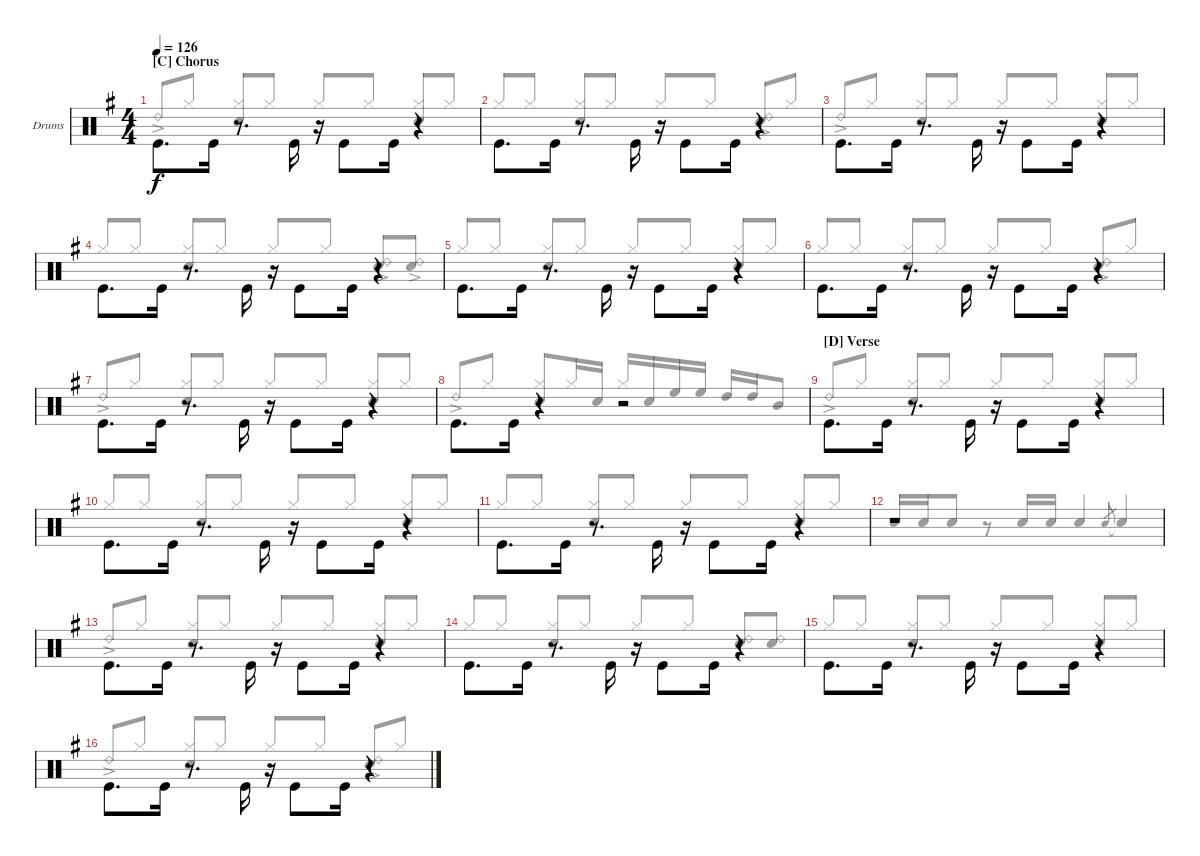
\defaultSystemsLayout 4
\bracketExtendMode groupsimilarinstruments
\firstSystemTrackNameOrientation horizontal
\otherSystemsTrackNameOrientation horizontal
\track ("Drumkit" "Drums") {instrument percussion}
\staff {score}
\articulation defaults
\voice
\ts (4 4)
\section ("C" "Chorus")
\tempo 126
\clef neutral
\scale
1.04288
\ks g "Kick (hit)".8{d dy f beam invert} "Kick (hit)".16
r.8{d beam invert} "Kick (hit)".16{beam invert} r.16{beam invert} "Kick (hit)".8{beam invert} "Kick (hit)".16 r.4{beam invert} |
\scale
0.957125 "Kick (hit)".8{d beam invert} "Kick (hit)".16 r.8{d beam invert} "Kick (hit)".16{beam invert} r.16{beam invert} "Kick (hit)".8{beam invert} "Kick (hit)".16 r.4{beam invert} |
\scale
1.04288 "Kick (hit)".8{d beam invert} "Kick (hit)".16 r.8{d beam invert} "Kick (hit)".16{beam invert} r.16{beam invert} "Kick (hit)".8{beam invert} "Kick (hit)".16 r.4{beam invert} |
\scale
0.957125 "Kick (hit)".8{d beam invert} "Kick (hit)".16 r.8{d beam invert} "Kick (hit)".16{beam invert} r.16{beam invert} "Kick (hit)".8{beam invert} "Kick (hit)".16 r.4{beam invert} |
\scale
1.04288 "Kick (hit)".8{d beam invert} "Kick (hit)".16 r.8{d beam invert} "Kick (hit)".16{beam invert} r.16{beam invert} "Kick (hit)".8{beam invert} "Kick (hit)".16 r.4{beam invert} |
\scale
0.957125 "Kick (hit)".8{d beam invert} "Kick (hit)".16 r.8{d beam invert} "Kick (hit)".16{beam invert} r.16{beam invert} "Kick (hit)".8{beam invert} "Kick (hit)".16 r.4{beam invert} |
\scale
1.04288 "Kick (hit)".8{d beam invert} "Kick (hit)".16 r.8{d beam invert} "Kick (hit)".16{beam invert} r.16{beam invert} "Kick (hit)".8{beam invert} "Kick (hit)".16 r.4{beam invert} |
\scale
0.957125 "Kick (hit)".8{d beam invert} "Kick (hit)".16 r.4{beam invert} r.2 |
\section ("D" "Verse")
\scale
1.04288 "Kick (hit)".8{d beam invert} "Kick (hit)".16 r.8{d beam invert} "Kick (hit)".16{beam invert} r.16{beam invert} "Kick (hit)".8{beam invert} "Kick (hit)".16 r.4{beam invert} |
\scale
0.957125 "Kick (hit)".8{d beam invert} "Kick (hit)".16 r.8{d beam invert} "Kick (hit)".16{beam invert} r.16{beam invert} "Kick (hit)".8{beam invert} "Kick (hit)".16 r.4{beam invert} |
\scale
1.04288 "Kick (hit)".8{d beam invert} "Kick (hit)".16 r.8{d beam invert} "Kick (hit)".16{beam invert} r.16{beam invert} "Kick (hit)".8{beam invert} "Kick (hit)".16 r.4{beam invert} |
\scale
0.957125 r.1 |
\scale
1.04288 "Kick (hit)".8{d beam invert} "Kick (hit)".16 r.8{d beam invert} "Kick (hit)".16{beam invert} r.16{beam invert} "Kick (hit)".8{beam invert} "Kick (hit)".16 r.4{beam invert} |
\scale
0.957125 "Kick (hit)".8{d beam invert} "Kick (hit)".16 r.8{d beam invert} "Kick (hit)".16{beam invert} r.16{beam invert} "Kick (hit)".8{beam invert} "Kick (hit)".16 r.4{beam invert} |
\scale
1.04288 "Kick (hit)".8{d beam invert} "Kick (hit)".16 r.8{d beam invert} "Kick (hit)".16{beam invert} r.16{beam invert} "Kick (hit)".8{beam invert} "Kick (hit)".16 r.4{beam invert} |
\scale
0.957125 "Kick (hit)".8{d beam invert} "Kick (hit)".16 r.8{d beam invert} "Kick (hit)".16{beam invert} r.16{beam invert} "Kick (hit)".8{beam invert} "Kick (hit)".16 r.4{beam invert}
\voice
\clef neutral
\ottava regular
\simile none
\scale
1.04288
\ks g "Ride (bell) 2"{ac}.8{dy f beam invert} "Hi-Hat (closed)".8
("Hi-Hat (closed)" "Snare (hit) 2").8{beam invert} "Hi-Hat (closed)".8 "Hi-Hat (closed)".8{beam invert} "Hi-Hat (closed)".8 ("Hi-Hat (closed)" "Snare (hit) 2").8{beam invert} "Hi-Hat (closed)".8 |
\scale
0.957125 "Hi-Hat (closed)".8{beam invert} "Hi-Hat (closed)".8 ("Hi-Hat (closed)" "Snare (hit) 2").8{beam invert} "Hi-Hat (closed)".8 "Hi-Hat (closed)".8{beam invert} "Hi-Hat (closed)".8 ("Snare (hit) 2" "Ride (bell) 2"{ac}).8{beam invert} "Hi-Hat (closed)".8 |
\scale
1.04288 "Ride (bell) 2"{ac}.8{beam invert} "Hi-Hat (closed)".8 ("Hi-Hat (closed)" "Snare (hit) 2").8{beam invert} "Hi-Hat (closed)".8 "Hi-Hat (closed)".8{beam invert} "Hi-Hat (closed)".8 ("Hi-Hat (closed)" "Snare (hit) 2").8{beam invert} "Hi-Hat (closed)".8 |
\scale
0.957125 "Hi-Hat (closed)".8{beam invert} "Hi-Hat (closed)".8 ("Hi-Hat (closed)" "Snare (hit) 2").8{beam invert} "Hi-Hat (closed)".8 "Hi-Hat (closed)".8{beam invert} "Hi-Hat (closed)".8 ("Snare (hit) 2" "Ride (bell) 2"{ac}).8{beam invert} ("Snare (hit) 2" "Ride (bell) 2"{ac}).8 |
\scale
1.04288 "Hi-Hat (closed)".8{beam invert} "Hi-Hat (closed)".8 ("Hi-Hat (closed)" "Snare (hit) 2").8{beam invert} "Hi-Hat (closed)".8 "Hi-Hat (closed)".8{beam invert} "Hi-Hat (closed)".8 ("Hi-Hat (closed)" "Snare (hit) 2").8{beam invert} "Hi-Hat (closed)".8 |
\scale
0.957125 "Hi-Hat (closed)".8{beam invert} "Hi-Hat (closed)".8 ("Hi-Hat (closed)" "Snare (hit) 2").8{beam invert} "Hi-Hat (closed)".8 "Hi-Hat (closed)".8{beam invert} "Hi-Hat (closed)".8 ("Snare (hit) 2" "Ride (bell) 2"{ac}).8{beam invert} "Hi-Hat (closed)".8 |
\scale
1.04288 "Ride (bell) 2"{ac}.8{beam invert} "Hi-Hat (closed)".8 ("Hi-Hat (closed)" "Snare (hit) 2").8{beam invert} "Hi-Hat (closed)".8 "Hi-Hat (closed)".8{beam invert} "Hi-Hat (closed)".8 ("Hi-Hat (closed)" "Snare (hit) 2").8{beam invert} "Hi-Hat (closed)".8 |
\scale
0.957125 "Ride (bell) 2"{ac}.8{beam invert} "Hi-Hat (closed)".8 ("Hi-Hat (closed)" "Snare (hit) 2").8{beam invert} "Hi-Hat (closed)".16 "Snare (hit) 2".16 "Hi-Hat (closed)".16 "Snare (hit) 2".16{beam invert} "High Floor Tom (hit)".16 "High Floor Tom (hit)".16 "High Tom (hit)".16{beam invert} "High Tom (hit)".16 "Mid Tom (hit)".8 |
\scale
1.04288 "Ride (bell) 2"{ac}.8{beam invert} "Hi-Hat (closed)".8 ("Hi-Hat (closed)" "Snare (hit) 2").8{beam invert} "Hi-Hat (closed)".8 "Hi-Hat (closed)".8{beam invert} "Hi-Hat (closed)".8 ("Hi-Hat (closed)" "Snare (hit) 2").8{beam invert} "Hi-Hat (closed)".8 |
\scale
0.957125 "Hi-Hat (closed)".8{beam invert} "Hi-Hat (closed)".8 ("Hi-Hat (closed)" "Snare (hit) 2").8{beam invert} "Hi-Hat (closed)".8 "Hi-Hat (closed)".8{beam invert} "Hi-Hat (closed)".8 ("Hi-Hat (closed)" "Snare (hit) 2").8{beam invert} "Hi-Hat (closed)".8 |
\scale
1.04288 "Hi-Hat (closed)".8{beam invert} "Hi-Hat (closed)".8 ("Hi-Hat (closed)" "Snare (hit) 2").8{beam invert} "Hi-Hat (closed)".8 "Hi-Hat (closed)".8{beam invert} "Hi-Hat (closed)".8 ("Hi-Hat (closed)" "Snare (hit) 2").8{beam invert} "Hi-Hat (closed)".8 |
\scale
0.957125 "Snare (hit) 2".16{beam invert} "Snare (hit) 2".16 "Snare (hit) 2".8 r.8{beam invert} "Snare (hit) 2".16{beam invert} "Snare (hit) 2".16 "Snare (hit) 2".4{beam invert} "Snare (hit) 2".8{gr beam invert} "Snare (hit) 2"{t}.4{beam invert} |
\scale
1.04288 "Ride (bell) 2"{ac}.8{beam invert} "Hi-Hat (closed)".8 ("Hi-Hat (closed)" "Snare (hit) 2").8{beam invert} "Hi-Hat (closed)".8 "Hi-Hat (closed)".8{beam invert} "Hi-Hat (closed)".8 ("Hi-Hat (closed)" "Snare (hit) 2").8{beam invert} "Hi-Hat (closed)".8 |
\scale
0.957125 "Hi-Hat (closed)".8{beam invert} "Hi-Hat (closed)".8 ("Hi-Hat (closed)" "Snare (hit) 2").8{beam invert} "Hi-Hat (closed)".8 "Hi-Hat (closed)".8{beam invert} "Hi-Hat (closed)".8 ("Snare (hit) 2" "Ride (bell) 2").8{beam invert} ("Snare (hit) 2" "Ride (bell) 2").8 |
\scale
1.04288 "Hi-Hat (closed)".8{beam invert} "Hi-Hat (closed)".8 ("Hi-Hat (closed)" "Snare (hit) 2").8{beam invert} "Hi-Hat (closed)".8 "Hi-Hat (closed)".8{beam invert} "Hi-Hat (closed)".8 ("Hi-Hat (closed)" "Snare (hit) 2").8{beam invert} "Hi-Hat (closed)".8 |
\scale
0.957125 "Ride (bell) 2"{ac}.8{beam invert} "Hi-Hat (closed)".8 ("Hi-Hat (closed)" "Snare (hit) 2").8{beam invert} "Hi-Hat (closed)".8 "Hi-Hat (closed)".8{beam invert} "Hi-Hat (closed)".8 ("Snare (hit) 2" "Ride (bell) 2"{ac}).8{beam invert} "Hi-Hat (closed)".8
